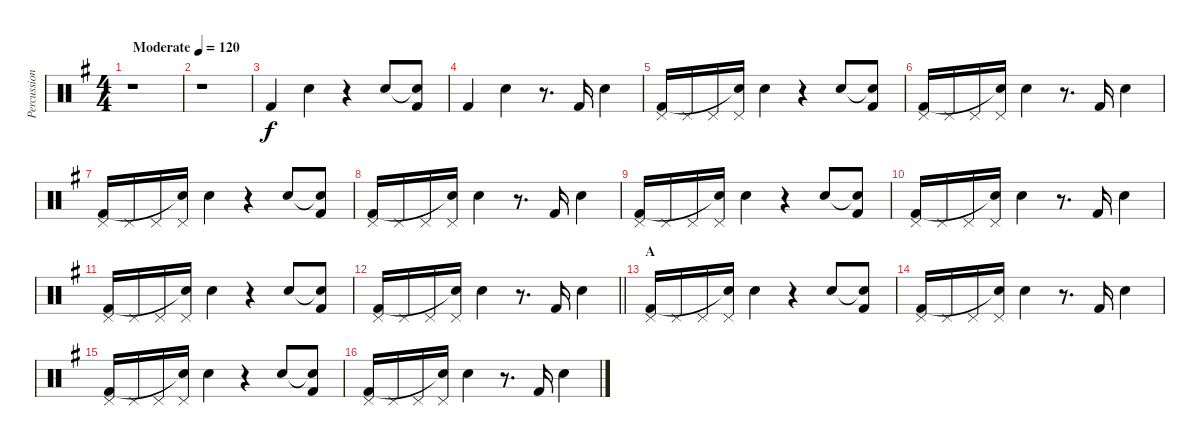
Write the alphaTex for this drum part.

\track ("Percussion" "Percussion") {instrument percussion}
\staff {score}
\articulation defaults
\ts (4 4)
\tempo (120 "Moderate")
\clef neutral
\ks g
r.1{dy f} |
r.1 |
"Kick (hit) 2".4 "Electric Snare (hit)".4 r.4 "Electric Snare (hit)".8 ("Snare (hit)"{t} "Kick (hit) 2").8 |
"Kick (hit) 2".4 "Electric Snare (hit)".4 r.8{d} "Kick (hit) 2".16 "Electric Snare (hit)".4 |
("Pedal Hi-Hat (hit)" "Kick (hit) 2").16 "Pedal Hi-Hat (hit)".16 "Pedal Hi-Hat (hit)".16 ("Pedal Hi-Hat (hit)" "Snare (hit)"{t}).16 "Electric Snare (hit)".4 r.4 "Electric Snare (hit)".8 ("Snare (hit)"{t} "Kick (hit) 2").8 |
("Pedal Hi-Hat (hit)" "Kick (hit) 2").16 "Pedal Hi-Hat (hit)".16 "Pedal Hi-Hat (hit)".16 ("Pedal Hi-Hat (hit)" "Snare (hit)"{t}).16 "Electric Snare (hit)".4 r.8{d} "Kick (hit) 2".16 "Electric Snare (hit)".4 |
("Pedal Hi-Hat (hit)" "Kick (hit) 2").16 "Pedal Hi-Hat (hit)".16 "Pedal Hi-Hat (hit)".16 ("Pedal Hi-Hat (hit)" "Snare (hit)"{t}).16 "Electric Snare (hit)".4 r.4 "Electric Snare (hit)".8 ("Snare (hit)"{t} "Kick (hit) 2").8 |
("Pedal Hi-Hat (hit)" "Kick (hit) 2").16 "Pedal Hi-Hat (hit)".16 "Pedal Hi-Hat (hit)".16 ("Pedal Hi-Hat (hit)" "Snare (hit)"{t}).16 "Electric Snare (hit)".4 r.8{d} "Kick (hit) 2".16 "Electric Snare (hit)".4 |
("Pedal Hi-Hat (hit)" "Kick (hit) 2").16 "Pedal Hi-Hat (hit)".16 "Pedal Hi-Hat (hit)".16 ("Pedal Hi-Hat (hit)" "Snare (hit)"{t}).16 "Electric Snare (hit)".4 r.4 "Electric Snare (hit)".8 ("Snare (hit)"{t} "Kick (hit) 2").8 |
("Pedal Hi-Hat (hit)" "Kick (hit) 2").16 "Pedal Hi-Hat (hit)".16 "Pedal Hi-Hat (hit)".16 ("Pedal Hi-Hat (hit)" "Snare (hit)"{t}).16 "Electric Snare (hit)".4 r.8{d} "Kick (hit) 2".16 "Electric Snare (hit)".4 |
("Pedal Hi-Hat (hit)" "Kick (hit) 2").16 "Pedal Hi-Hat (hit)".16 "Pedal Hi-Hat (hit)".16 ("Pedal Hi-Hat (hit)" "Snare (hit)"{t}).16 "Electric Snare (hit)".4 r.4 "Electric Snare (hit)".8 ("Snare (hit)"{t} "Kick (hit) 2").8 |
\barLineRight lightlight
("Pedal Hi-Hat (hit)" "Kick (hit) 2").16 "Pedal Hi-Hat (hit)".16 "Pedal Hi-Hat (hit)".16 ("Pedal Hi-Hat (hit)" "Snare (hit)"{t}).16 "Electric Snare (hit)".4 r.8{d} "Kick (hit) 2".16 "Electric Snare (hit)".4 |
\section ("" "A")
("Pedal Hi-Hat (hit)" "Kick (hit) 2").16 "Pedal Hi-Hat (hit)".16 "Pedal Hi-Hat (hit)".16 ("Pedal Hi-Hat (hit)" "Snare (hit)"{t}).16 "Electric Snare (hit)".4 r.4 "Electric Snare (hit)".8 ("Snare (hit)"{t} "Kick (hit) 2").8 |
("Pedal Hi-Hat (hit)" "Kick (hit) 2").16 "Pedal Hi-Hat (hit)".16 "Pedal Hi-Hat (hit)".16 ("Pedal Hi-Hat (hit)" "Snare (hit)"{t}).16 "Electric Snare (hit)".4 r.8{d} "Kick (hit) 2".16 "Electric Snare (hit)".4 |
("Pedal Hi-Hat (hit)" "Kick (hit) 2").16 "Pedal Hi-Hat (hit)".16 "Pedal Hi-Hat (hit)".16 ("Pedal Hi-Hat (hit)" "Snare (hit)"{t}).16 "Electric Snare (hit)".4 r.4 "Electric Snare (hit)".8 ("Snare (hit)"{t} "Kick (hit) 2").8 |
("Pedal Hi-Hat (hit)" "Kick (hit) 2").16 "Pedal Hi-Hat (hit)".16 "Pedal Hi-Hat (hit)".16 ("Pedal Hi-Hat (hit)" "Snare (hit)"{t}).16 "Electric Snare (hit)".4 r.8{d} "Kick (hit) 2".16 "Electric Snare (hit)".4
